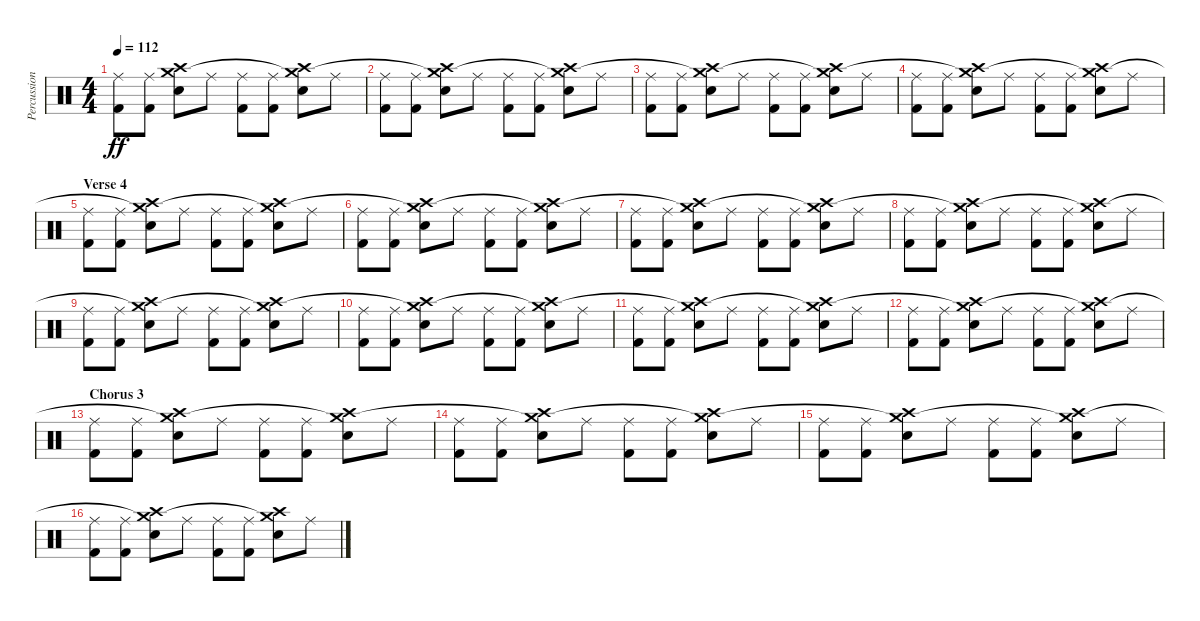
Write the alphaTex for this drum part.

\track ("Percussion" "Percussion") {instrument percussion}
\staff {score}
\articulation defaults
\ts (4 4)
\tempo 112
\clef neutral
\ks c
("Kick (hit) 2" "Ride (middle)").8{dy ff} ("Kick (hit) 2" "Ride (middle)").8 ("Crash high (hit)" "Electric Snare (hit)" "Crash medium (hit)"{t}).8 "Ride (middle)".8 ("Kick (hit) 2" "Ride (middle)").8 ("Kick (hit) 2" "Ride (middle)").8 ("Crash high (hit)" "Electric Snare (hit)" "Crash medium (hit)"{t}).8 "Ride (middle)".8 |
("Kick (hit) 2" "Ride (middle)").8 ("Kick (hit) 2" "Ride (middle)").8 ("Crash high (hit)" "Electric Snare (hit)" "Crash medium (hit)"{t}).8 "Ride (middle)".8 ("Kick (hit) 2" "Ride (middle)").8 ("Kick (hit) 2" "Ride (middle)").8 ("Crash high (hit)" "Electric Snare (hit)" "Crash medium (hit)"{t}).8 "Ride (middle)".8 |
("Kick (hit) 2" "Ride (middle)").8 ("Kick (hit) 2" "Ride (middle)").8 ("Crash high (hit)" "Electric Snare (hit)" "Crash medium (hit)"{t}).8 "Ride (middle)".8 ("Kick (hit) 2" "Ride (middle)").8 ("Kick (hit) 2" "Ride (middle)").8 ("Crash high (hit)" "Electric Snare (hit)" "Crash medium (hit)"{t}).8 "Ride (middle)".8 |
("Kick (hit) 2" "Ride (middle)").8 ("Kick (hit) 2" "Ride (middle)").8 ("Crash high (hit)" "Electric Snare (hit)" "Crash medium (hit)"{t}).8 "Ride (middle)".8 ("Kick (hit) 2" "Ride (middle)").8 ("Kick (hit) 2" "Ride (middle)").8 ("Crash high (hit)" "Electric Snare (hit)" "Crash medium (hit)"{t}).8 "Ride (middle)".8 |
\section ("" "Verse 4")
("Kick (hit) 2" "Ride (middle)").8 ("Kick (hit) 2" "Ride (middle)").8 ("Crash high (hit)" "Electric Snare (hit)" "Crash medium (hit)"{t}).8 "Ride (middle)".8 ("Kick (hit) 2" "Ride (middle)").8 ("Kick (hit) 2" "Ride (middle)").8 ("Crash high (hit)" "Electric Snare (hit)" "Crash medium (hit)"{t}).8 "Ride (middle)".8 |
("Kick (hit) 2" "Ride (middle)").8 ("Kick (hit) 2" "Ride (middle)").8 ("Crash high (hit)" "Electric Snare (hit)" "Crash medium (hit)"{t}).8 "Ride (middle)".8 ("Kick (hit) 2" "Ride (middle)").8 ("Kick (hit) 2" "Ride (middle)").8 ("Crash high (hit)" "Electric Snare (hit)" "Crash medium (hit)"{t}).8 "Ride (middle)".8 |
("Kick (hit) 2" "Ride (middle)").8 ("Kick (hit) 2" "Ride (middle)").8 ("Crash high (hit)" "Electric Snare (hit)" "Crash medium (hit)"{t}).8 "Ride (middle)".8 ("Kick (hit) 2" "Ride (middle)").8 ("Kick (hit) 2" "Ride (middle)").8 ("Crash high (hit)" "Electric Snare (hit)" "Crash medium (hit)"{t}).8 "Ride (middle)".8 |
("Kick (hit) 2" "Ride (middle)").8 ("Kick (hit) 2" "Ride (middle)").8 ("Crash high (hit)" "Electric Snare (hit)" "Crash medium (hit)"{t}).8 "Ride (middle)".8 ("Kick (hit) 2" "Ride (middle)").8 ("Kick (hit) 2" "Ride (middle)").8 ("Crash high (hit)" "Electric Snare (hit)" "Crash medium (hit)"{t}).8 "Ride (middle)".8 |
("Kick (hit) 2" "Ride (middle)").8 ("Kick (hit) 2" "Ride (middle)").8 ("Crash high (hit)" "Electric Snare (hit)" "Crash medium (hit)"{t}).8 "Ride (middle)".8 ("Kick (hit) 2" "Ride (middle)").8 ("Kick (hit) 2" "Ride (middle)").8 ("Crash high (hit)" "Electric Snare (hit)" "Crash medium (hit)"{t}).8 "Ride (middle)".8 |
("Kick (hit) 2" "Ride (middle)").8 ("Kick (hit) 2" "Ride (middle)").8 ("Crash high (hit)" "Electric Snare (hit)" "Crash medium (hit)"{t}).8 "Ride (middle)".8 ("Kick (hit) 2" "Ride (middle)").8 ("Kick (hit) 2" "Ride (middle)").8 ("Crash high (hit)" "Electric Snare (hit)" "Crash medium (hit)"{t}).8 "Ride (middle)".8 |
("Kick (hit) 2" "Ride (middle)").8 ("Kick (hit) 2" "Ride (middle)").8 ("Crash high (hit)" "Electric Snare (hit)" "Crash medium (hit)"{t}).8 "Ride (middle)".8 ("Kick (hit) 2" "Ride (middle)").8 ("Kick (hit) 2" "Ride (middle)").8 ("Crash high (hit)" "Electric Snare (hit)" "Crash medium (hit)"{t}).8 "Ride (middle)".8 |
("Kick (hit) 2" "Ride (middle)").8 ("Kick (hit) 2" "Ride (middle)").8 ("Crash high (hit)" "Electric Snare (hit)" "Crash medium (hit)"{t}).8 "Ride (middle)".8 ("Kick (hit) 2" "Ride (middle)").8 ("Kick (hit) 2" "Ride (middle)").8 ("Crash high (hit)" "Electric Snare (hit)" "Crash medium (hit)"{t}).8 "Ride (middle)".8 |
\section ("" "Chorus 3")
("Kick (hit) 2" "Ride (middle)").8 ("Kick (hit) 2" "Ride (middle)").8 ("Crash high (hit)" "Electric Snare (hit)" "Crash medium (hit)"{t}).8 "Ride (middle)".8 ("Kick (hit) 2" "Ride (middle)").8 ("Kick (hit) 2" "Ride (middle)").8 ("Crash high (hit)" "Electric Snare (hit)" "Crash medium (hit)"{t}).8 "Ride (middle)".8 |
("Kick (hit) 2" "Ride (middle)").8 ("Kick (hit) 2" "Ride (middle)").8 ("Crash high (hit)" "Electric Snare (hit)" "Crash medium (hit)"{t}).8 "Ride (middle)".8 ("Kick (hit) 2" "Ride (middle)").8 ("Kick (hit) 2" "Ride (middle)").8 ("Crash high (hit)" "Electric Snare (hit)" "Crash medium (hit)"{t}).8 "Ride (middle)".8 |
("Kick (hit) 2" "Ride (middle)").8 ("Kick (hit) 2" "Ride (middle)").8 ("Crash high (hit)" "Electric Snare (hit)" "Crash medium (hit)"{t}).8 "Ride (middle)".8 ("Kick (hit) 2" "Ride (middle)").8 ("Kick (hit) 2" "Ride (middle)").8 ("Crash high (hit)" "Electric Snare (hit)" "Crash medium (hit)"{t}).8 "Ride (middle)".8 |
("Kick (hit) 2" "Ride (middle)").8 ("Kick (hit) 2" "Ride (middle)").8 ("Crash high (hit)" "Electric Snare (hit)" "Crash medium (hit)"{t}).8 "Ride (middle)".8 ("Kick (hit) 2" "Ride (middle)").8 ("Kick (hit) 2" "Ride (middle)").8 ("Crash high (hit)" "Electric Snare (hit)" "Crash medium (hit)"{t}).8 "Ride (middle)".8
